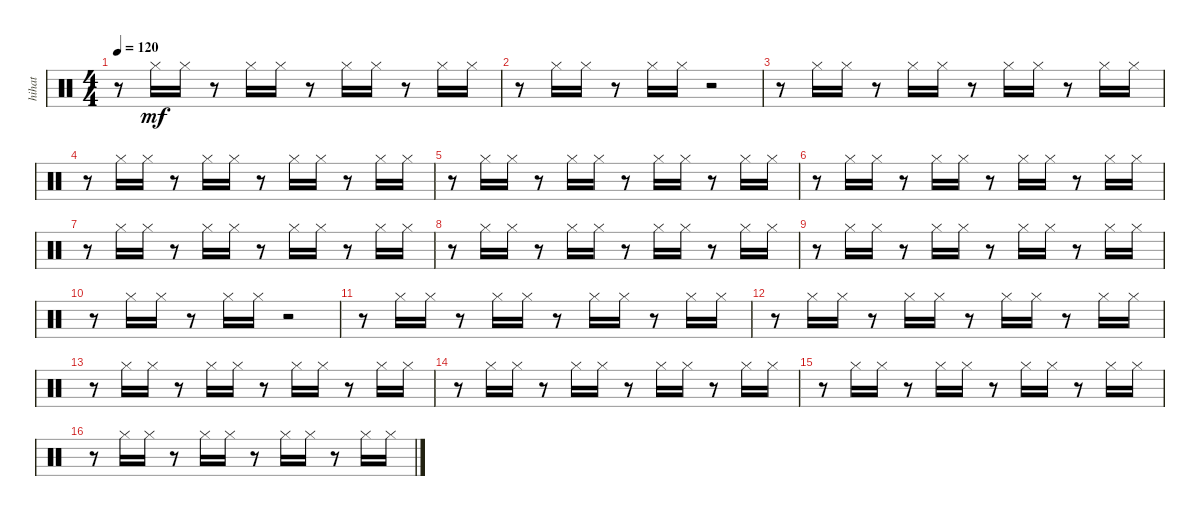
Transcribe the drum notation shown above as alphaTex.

\track ("hihat" "hihat") {instrument percussion}
\staff {score}
\articulation defaults
\ts (4 4)
\tempo 120
\clef neutral
\ks c
r.8{dy mf} "Hi-Hat (closed)".16 "Hi-Hat (closed)".16 r.8 "Hi-Hat (closed)".16 "Hi-Hat (closed)".16 r.8 "Hi-Hat (closed)".16 "Hi-Hat (closed)".16 r.8 "Hi-Hat (closed)".16 "Hi-Hat (closed)".16 |
r.8 "Hi-Hat (closed)".16 "Hi-Hat (closed)".16 r.8 "Hi-Hat (closed)".16 "Hi-Hat (closed)".16 r.2 |
r.8 "Hi-Hat (closed)".16 "Hi-Hat (closed)".16 r.8 "Hi-Hat (closed)".16 "Hi-Hat (closed)".16 r.8 "Hi-Hat (closed)".16 "Hi-Hat (closed)".16 r.8 "Hi-Hat (closed)".16 "Hi-Hat (closed)".16 |
r.8 "Hi-Hat (closed)".16 "Hi-Hat (closed)".16 r.8 "Hi-Hat (closed)".16 "Hi-Hat (closed)".16 r.8 "Hi-Hat (closed)".16 "Hi-Hat (closed)".16 r.8 "Hi-Hat (closed)".16 "Hi-Hat (closed)".16 |
r.8 "Hi-Hat (closed)".16 "Hi-Hat (closed)".16 r.8 "Hi-Hat (closed)".16 "Hi-Hat (closed)".16 r.8 "Hi-Hat (closed)".16 "Hi-Hat (closed)".16 r.8 "Hi-Hat (closed)".16 "Hi-Hat (closed)".16 |
r.8 "Hi-Hat (closed)".16 "Hi-Hat (closed)".16 r.8 "Hi-Hat (closed)".16 "Hi-Hat (closed)".16 r.8 "Hi-Hat (closed)".16 "Hi-Hat (closed)".16 r.8 "Hi-Hat (closed)".16 "Hi-Hat (closed)".16 |
r.8 "Hi-Hat (closed)".16 "Hi-Hat (closed)".16 r.8 "Hi-Hat (closed)".16 "Hi-Hat (closed)".16 r.8 "Hi-Hat (closed)".16 "Hi-Hat (closed)".16 r.8 "Hi-Hat (closed)".16 "Hi-Hat (closed)".16 |
r.8 "Hi-Hat (closed)".16 "Hi-Hat (closed)".16 r.8 "Hi-Hat (closed)".16 "Hi-Hat (closed)".16 r.8 "Hi-Hat (closed)".16 "Hi-Hat (closed)".16 r.8 "Hi-Hat (closed)".16 "Hi-Hat (closed)".16 |
r.8 "Hi-Hat (closed)".16 "Hi-Hat (closed)".16 r.8 "Hi-Hat (closed)".16 "Hi-Hat (closed)".16 r.8 "Hi-Hat (closed)".16 "Hi-Hat (closed)".16 r.8 "Hi-Hat (closed)".16 "Hi-Hat (closed)".16 |
r.8 "Hi-Hat (closed)".16 "Hi-Hat (closed)".16 r.8 "Hi-Hat (closed)".16 "Hi-Hat (closed)".16 r.2 |
r.8 "Hi-Hat (closed)".16 "Hi-Hat (closed)".16 r.8 "Hi-Hat (closed)".16 "Hi-Hat (closed)".16 r.8 "Hi-Hat (closed)".16 "Hi-Hat (closed)".16 r.8 "Hi-Hat (closed)".16 "Hi-Hat (closed)".16 |
r.8 "Hi-Hat (closed)".16 "Hi-Hat (closed)".16 r.8 "Hi-Hat (closed)".16 "Hi-Hat (closed)".16 r.8 "Hi-Hat (closed)".16 "Hi-Hat (closed)".16 r.8 "Hi-Hat (closed)".16 "Hi-Hat (closed)".16 |
r.8 "Hi-Hat (closed)".16 "Hi-Hat (closed)".16 r.8 "Hi-Hat (closed)".16 "Hi-Hat (closed)".16 r.8 "Hi-Hat (closed)".16 "Hi-Hat (closed)".16 r.8 "Hi-Hat (closed)".16 "Hi-Hat (closed)".16 |
r.8 "Hi-Hat (closed)".16 "Hi-Hat (closed)".16 r.8 "Hi-Hat (closed)".16 "Hi-Hat (closed)".16 r.8 "Hi-Hat (closed)".16 "Hi-Hat (closed)".16 r.8 "Hi-Hat (closed)".16 "Hi-Hat (closed)".16 |
r.8 "Hi-Hat (closed)".16 "Hi-Hat (closed)".16 r.8 "Hi-Hat (closed)".16 "Hi-Hat (closed)".16 r.8 "Hi-Hat (closed)".16 "Hi-Hat (closed)".16 r.8 "Hi-Hat (closed)".16 "Hi-Hat (closed)".16 |
r.8 "Hi-Hat (closed)".16 "Hi-Hat (closed)".16 r.8 "Hi-Hat (closed)".16 "Hi-Hat (closed)".16 r.8 "Hi-Hat (closed)".16 "Hi-Hat (closed)".16 r.8 "Hi-Hat (closed)".16 "Hi-Hat (closed)".16
